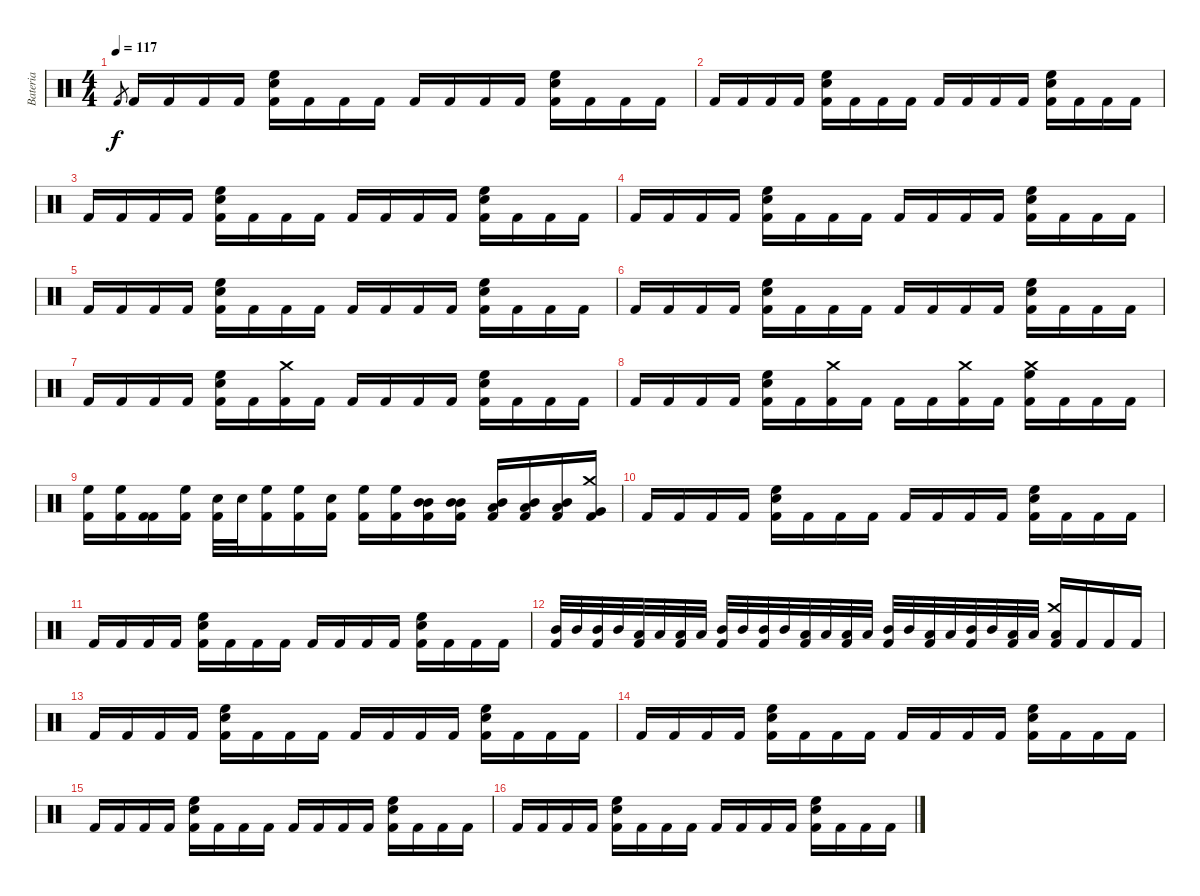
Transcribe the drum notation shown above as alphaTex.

\track ("Bateria" "Bateria") {instrument percussion}
\staff {score}
\articulation defaults
\ts (4 4)
\tempo 117
\clef neutral
\ks c "Kick (hit) 2".8{gr dy f} "Kick (hit) 2".16 "Kick (hit) 2".16 "Kick (hit) 2".16 "Kick (hit) 2".16
("Snare (hit) 2" "High Floor Tom (hit)" "Kick (hit) 2").16 "Kick (hit) 2".16 "Kick (hit) 2".16 "Kick (hit) 2".16 "Kick (hit) 2".16 "Kick (hit) 2".16 "Kick (hit) 2".16 "Kick (hit) 2".16 ("Snare (hit) 2" "High Floor Tom (hit)" "Kick (hit) 2").16 "Kick (hit) 2".16 "Kick (hit) 2".16 "Kick (hit) 2".16 |
"Kick (hit) 2".16 "Kick (hit) 2".16 "Kick (hit) 2".16 "Kick (hit) 2".16 ("Snare (hit) 2" "High Floor Tom (hit)" "Kick (hit) 2").16 "Kick (hit) 2".16 "Kick (hit) 2".16 "Kick (hit) 2".16 "Kick (hit) 2".16 "Kick (hit) 2".16 "Kick (hit) 2".16 "Kick (hit) 2".16 ("Snare (hit) 2" "High Floor Tom (hit)" "Kick (hit) 2").16 "Kick (hit) 2".16 "Kick (hit) 2".16 "Kick (hit) 2".16 |
"Kick (hit) 2".16 "Kick (hit) 2".16 "Kick (hit) 2".16 "Kick (hit) 2".16 ("Snare (hit) 2" "High Floor Tom (hit)" "Kick (hit) 2").16 "Kick (hit) 2".16 "Kick (hit) 2".16 "Kick (hit) 2".16 "Kick (hit) 2".16 "Kick (hit) 2".16 "Kick (hit) 2".16 "Kick (hit) 2".16 ("Snare (hit) 2" "High Floor Tom (hit)" "Kick (hit) 2").16 "Kick (hit) 2".16 "Kick (hit) 2".16 "Kick (hit) 2".16 |
"Kick (hit) 2".16 "Kick (hit) 2".16 "Kick (hit) 2".16 "Kick (hit) 2".16 ("Snare (hit) 2" "High Floor Tom (hit)" "Kick (hit) 2").16 "Kick (hit) 2".16 "Kick (hit) 2".16 "Kick (hit) 2".16 "Kick (hit) 2".16 "Kick (hit) 2".16 "Kick (hit) 2".16 "Kick (hit) 2".16 ("Snare (hit) 2" "High Floor Tom (hit)" "Kick (hit) 2").16 "Kick (hit) 2".16 "Kick (hit) 2".16 "Kick (hit) 2".16 |
"Kick (hit) 2".16 "Kick (hit) 2".16 "Kick (hit) 2".16 "Kick (hit) 2".16 ("Snare (hit) 2" "High Floor Tom (hit)" "Kick (hit) 2").16 "Kick (hit) 2".16 "Kick (hit) 2".16 "Kick (hit) 2".16 "Kick (hit) 2".16 "Kick (hit) 2".16 "Kick (hit) 2".16 "Kick (hit) 2".16 ("Snare (hit) 2" "High Floor Tom (hit)" "Kick (hit) 2").16 "Kick (hit) 2".16 "Kick (hit) 2".16 "Kick (hit) 2".16 |
"Kick (hit) 2".16 "Kick (hit) 2".16 "Kick (hit) 2".16 "Kick (hit) 2".16 ("Snare (hit) 2" "High Floor Tom (hit)" "Kick (hit) 2").16 "Kick (hit) 2".16 "Kick (hit) 2".16 "Kick (hit) 2".16 "Kick (hit) 2".16 "Kick (hit) 2".16 "Kick (hit) 2".16 "Kick (hit) 2".16 ("Snare (hit) 2" "High Floor Tom (hit)" "Kick (hit) 2").16 "Kick (hit) 2".16 "Kick (hit) 2".16 "Kick (hit) 2".16 |
"Kick (hit) 2".16 "Kick (hit) 2".16 "Kick (hit) 2".16 "Kick (hit) 2".16 ("Snare (hit) 2" "High Floor Tom (hit)" "Kick (hit) 2").16 "Kick (hit) 2".16 ("Crash medium (hit)" "Kick (hit) 2").16 "Kick (hit) 2".16 "Kick (hit) 2".16 "Kick (hit) 2".16 "Kick (hit) 2".16 "Kick (hit) 2".16 ("Snare (hit) 2" "High Floor Tom (hit)" "Kick (hit) 2").16 "Kick (hit) 2".16 "Kick (hit) 2".16 "Kick (hit) 2".16 |
"Kick (hit) 2".16 "Kick (hit) 2".16 "Kick (hit) 2".16 "Kick (hit) 2".16 ("Snare (hit) 2" "High Floor Tom (hit)" "Kick (hit) 2").16 "Kick (hit) 2".16 ("Crash medium (hit)" "Kick (hit) 2").16 "Kick (hit) 2".16 "Kick (hit) 2".16 "Kick (hit) 2".16 ("Crash medium (hit)" "Kick (hit) 2").16 "Kick (hit) 2".16 ("Crash medium (hit)" "High Floor Tom (hit)" "Kick (hit) 2").16 "Kick (hit) 2".16 "Kick (hit) 2".16 "Kick (hit) 2".16 |
("High Floor Tom (hit)" "Kick (hit) 2").16 ("High Floor Tom (hit)" "Kick (hit) 2").16 ("Kick (hit) 2" "Kick (hit) 2").16 ("High Floor Tom (hit)" "Kick (hit) 2").16 ("Snare (hit) 2" "Kick (hit) 2").32 "Snare (hit) 2".32 ("High Floor Tom (hit)" "Kick (hit) 2").16 ("High Floor Tom (hit)" "Kick (hit) 2").16 ("Snare (hit) 2" "Kick (hit) 2").16 ("High Floor Tom (hit)" "Kick (hit) 2").16 ("High Floor Tom (hit)" "Kick (hit) 2").16 ("Mid Tom (hit)" "Mid Tom (hit)" "Kick (hit) 2").16 ("Mid Tom (hit)" "Mid Tom (hit)" "Kick (hit) 2").16 ("Mid Tom (hit)" "Low Tom (hit)" "Kick (hit) 2").16 ("Mid Tom (hit)" "Low Tom (hit)" "Kick (hit) 2").16 ("Mid Tom (hit)" "Low Tom (hit)" "Kick (hit) 2").16 ("Crash medium (hit)" "Very Low Tom (hit)" "Kick (hit) 2").16 |
"Kick (hit) 2".16 "Kick (hit) 2".16 "Kick (hit) 2".16 "Kick (hit) 2".16 ("Snare (hit) 2" "High Floor Tom (hit)" "Kick (hit) 2").16 "Kick (hit) 2".16 "Kick (hit) 2".16 "Kick (hit) 2".16 "Kick (hit) 2".16 "Kick (hit) 2".16 "Kick (hit) 2".16 "Kick (hit) 2".16 ("Snare (hit) 2" "High Floor Tom (hit)" "Kick (hit) 2").16 "Kick (hit) 2".16 "Kick (hit) 2".16 "Kick (hit) 2".16 |
"Kick (hit) 2".16 "Kick (hit) 2".16 "Kick (hit) 2".16 "Kick (hit) 2".16 ("Snare (hit) 2" "High Floor Tom (hit)" "Kick (hit) 2").16 "Kick (hit) 2".16 "Kick (hit) 2".16 "Kick (hit) 2".16 "Kick (hit) 2".16 "Kick (hit) 2".16 "Kick (hit) 2".16 "Kick (hit) 2".16 ("Snare (hit) 2" "High Floor Tom (hit)" "Kick (hit) 2").16 "Kick (hit) 2".16 "Kick (hit) 2".16 "Kick (hit) 2".16 |
("Mid Tom (hit)" "Kick (hit) 2").32 "Mid Tom (hit)".32 ("Mid Tom (hit)" "Kick (hit) 2").32 "Mid Tom (hit)".32 ("Low Tom (hit)" "Kick (hit) 2").32 "Low Tom (hit)".32 ("Low Tom (hit)" "Kick (hit) 2").32 "Low Tom (hit)".32 ("Mid Tom (hit)" "Kick (hit) 2").32 "Mid Tom (hit)".32 ("Mid Tom (hit)" "Kick (hit) 2").32 "Mid Tom (hit)".32 ("Low Tom (hit)" "Kick (hit) 2").32 "Low Tom (hit)".32 ("Low Tom (hit)" "Kick (hit) 2").32 "Low Tom (hit)".32 ("Mid Tom (hit)" "Kick (hit) 2").32 "Mid Tom (hit)".32 ("Low Tom (hit)" "Kick (hit) 2").32 "Low Tom (hit)".32 ("Mid Tom (hit)" "Kick (hit) 2").32 "Mid Tom (hit)".32 ("Low Tom (hit)" "Kick (hit) 2").32 "Low Tom (hit)".32 ("Crash medium (hit)" "Low Tom (hit)" "Kick (hit) 2").16 "Kick (hit) 2".16 "Kick (hit) 2".16 "Kick (hit) 2".16 |
"Kick (hit) 2".16 "Kick (hit) 2".16 "Kick (hit) 2".16 "Kick (hit) 2".16 ("Snare (hit) 2" "High Floor Tom (hit)" "Kick (hit) 2").16 "Kick (hit) 2".16 "Kick (hit) 2".16 "Kick (hit) 2".16 "Kick (hit) 2".16 "Kick (hit) 2".16 "Kick (hit) 2".16 "Kick (hit) 2".16 ("Snare (hit) 2" "High Floor Tom (hit)" "Kick (hit) 2").16 "Kick (hit) 2".16 "Kick (hit) 2".16 "Kick (hit) 2".16 |
"Kick (hit) 2".16 "Kick (hit) 2".16 "Kick (hit) 2".16 "Kick (hit) 2".16 ("Snare (hit) 2" "High Floor Tom (hit)" "Kick (hit) 2").16 "Kick (hit) 2".16 "Kick (hit) 2".16 "Kick (hit) 2".16 "Kick (hit) 2".16 "Kick (hit) 2".16 "Kick (hit) 2".16 "Kick (hit) 2".16 ("Snare (hit) 2" "High Floor Tom (hit)" "Kick (hit) 2").16 "Kick (hit) 2".16 "Kick (hit) 2".16 "Kick (hit) 2".16 |
"Kick (hit) 2".16 "Kick (hit) 2".16 "Kick (hit) 2".16 "Kick (hit) 2".16 ("Snare (hit) 2" "High Floor Tom (hit)" "Kick (hit) 2").16 "Kick (hit) 2".16 "Kick (hit) 2".16 "Kick (hit) 2".16 "Kick (hit) 2".16 "Kick (hit) 2".16 "Kick (hit) 2".16 "Kick (hit) 2".16 ("Snare (hit) 2" "High Floor Tom (hit)" "Kick (hit) 2").16 "Kick (hit) 2".16 "Kick (hit) 2".16 "Kick (hit) 2".16 |
"Kick (hit) 2".16 "Kick (hit) 2".16 "Kick (hit) 2".16 "Kick (hit) 2".16 ("Snare (hit) 2" "High Floor Tom (hit)" "Kick (hit) 2").16 "Kick (hit) 2".16 "Kick (hit) 2".16 "Kick (hit) 2".16 "Kick (hit) 2".16 "Kick (hit) 2".16 "Kick (hit) 2".16 "Kick (hit) 2".16 ("Snare (hit) 2" "High Floor Tom (hit)" "Kick (hit) 2").16 "Kick (hit) 2".16 "Kick (hit) 2".16 "Kick (hit) 2".16
